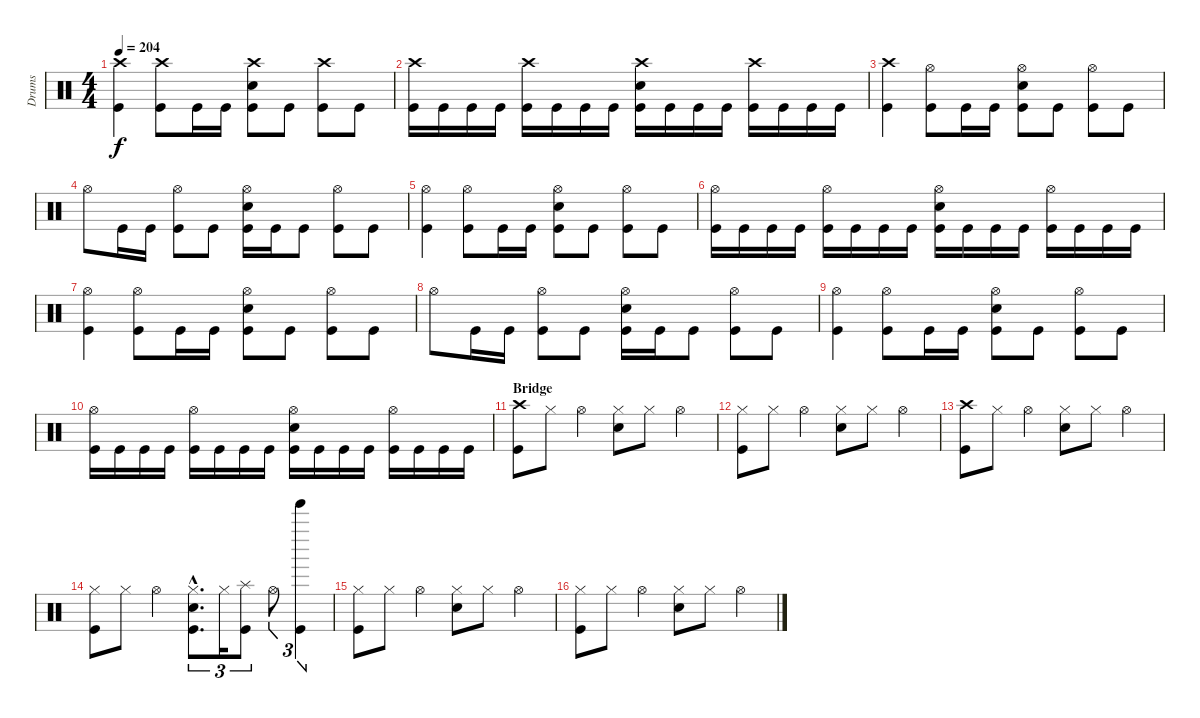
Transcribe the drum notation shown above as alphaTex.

\track ("Drums" "Drums") {instrument percussion}
\staff {score}
\articulation defaults
\ts (4 4)
\tempo 204
\clef neutral
\ks c
("Crash high (hit)" "Kick (hit)").4{dy f} ("Crash high (hit)" "Kick (hit)").8 "Kick (hit)".16 "Kick (hit)".16 ("Crash high (hit)" "Electric Snare (hit)" "Kick (hit)").8 "Kick (hit)".8 ("Crash high (hit)" "Kick (hit)").8 "Kick (hit)".8 |
("Crash high (hit)" "Kick (hit)").16 "Kick (hit)".16 "Kick (hit)".16 "Kick (hit)".16 ("Crash high (hit)" "Kick (hit)").16 "Kick (hit)".16 "Kick (hit)".16 "Kick (hit)".16 ("Crash high (hit)" "Electric Snare (hit)" "Kick (hit)").16 "Kick (hit)".16 "Kick (hit)".16 "Kick (hit)".16 ("Crash high (hit)" "Kick (hit)").16 "Kick (hit)".16 "Kick (hit)".16 "Kick (hit)".16 |
("Crash high (hit)" "Kick (hit)").4 ("Hi-Hat (open)" "Kick (hit)").8 "Kick (hit)".16 "Kick (hit)".16 ("Hi-Hat (open)" "Electric Snare (hit)" "Kick (hit)").8 "Kick (hit)".8 ("Hi-Hat (open)" "Kick (hit)").8 "Kick (hit)".8 |
"Hi-Hat (open)".8 "Kick (hit)".16 "Kick (hit)".16 ("Hi-Hat (open)" "Kick (hit)").8 "Kick (hit)".8 ("Hi-Hat (open)" "Electric Snare (hit)" "Kick (hit)").16 "Kick (hit)".16 "Kick (hit)".8 ("Hi-Hat (open)" "Kick (hit)").8 "Kick (hit)".8 |
("Hi-Hat (open)" "Kick (hit)").4 ("Hi-Hat (open)" "Kick (hit)").8 "Kick (hit)".16 "Kick (hit)".16 ("Hi-Hat (open)" "Electric Snare (hit)" "Kick (hit)").8 "Kick (hit)".8 ("Hi-Hat (open)" "Kick (hit)").8 "Kick (hit)".8 |
("Hi-Hat (open)" "Kick (hit)").16 "Kick (hit)".16 "Kick (hit)".16 "Kick (hit)".16 ("Hi-Hat (open)" "Kick (hit)").16 "Kick (hit)".16 "Kick (hit)".16 "Kick (hit)".16 ("Hi-Hat (open)" "Electric Snare (hit)" "Kick (hit)").16 "Kick (hit)".16 "Kick (hit)".16 "Kick (hit)".16 ("Hi-Hat (open)" "Kick (hit)").16 "Kick (hit)".16 "Kick (hit)".16 "Kick (hit)".16 |
("Hi-Hat (open)" "Kick (hit)").4 ("Hi-Hat (open)" "Kick (hit)").8 "Kick (hit)".16 "Kick (hit)".16 ("Hi-Hat (open)" "Electric Snare (hit)" "Kick (hit)").8 "Kick (hit)".8 ("Hi-Hat (open)" "Kick (hit)").8 "Kick (hit)".8 |
"Hi-Hat (open)".8 "Kick (hit)".16 "Kick (hit)".16 ("Hi-Hat (open)" "Kick (hit)").8 "Kick (hit)".8 ("Hi-Hat (open)" "Electric Snare (hit)" "Kick (hit)").16 "Kick (hit)".16 "Kick (hit)".8 ("Hi-Hat (open)" "Kick (hit)").8 "Kick (hit)".8 |
("Hi-Hat (open)" "Kick (hit)").4 ("Hi-Hat (open)" "Kick (hit)").8 "Kick (hit)".16 "Kick (hit)".16 ("Hi-Hat (open)" "Electric Snare (hit)" "Kick (hit)").8 "Kick (hit)".8 ("Hi-Hat (open)" "Kick (hit)").8 "Kick (hit)".8 |
("Hi-Hat (open)" "Kick (hit)").16 "Kick (hit)".16 "Kick (hit)".16 "Kick (hit)".16 ("Hi-Hat (open)" "Kick (hit)").16 "Kick (hit)".16 "Kick (hit)".16 "Kick (hit)".16 ("Hi-Hat (open)" "Electric Snare (hit)" "Kick (hit)").16 "Kick (hit)".16 "Kick (hit)".16 "Kick (hit)".16 ("Hi-Hat (open)" "Kick (hit)").16 "Kick (hit)".16 "Kick (hit)".16 "Kick (hit)".16 |
\section ("" "Bridge")
("Crash high (hit)" "Kick (hit)").8 "Hi-Hat (closed)".8 "Hi-Hat (open)".4 ("Hi-Hat (closed)" "Electric Snare (hit)").8 "Hi-Hat (closed)".8 "Hi-Hat (open)".4 |
("Hi-Hat (closed)" "Kick (hit)").8 "Hi-Hat (closed)".8 "Hi-Hat (open)".4 ("Hi-Hat (closed)" "Electric Snare (hit)").8 "Hi-Hat (closed)".8 "Hi-Hat (open)".4 |
("Crash high (hit)" "Kick (hit)").8 "Hi-Hat (closed)".8 "Hi-Hat (open)".4 ("Hi-Hat (closed)" "Electric Snare (hit)").8 "Hi-Hat (closed)".8 "Hi-Hat (open)".4 |
("Hi-Hat (closed)" "Kick (hit)").8 "Hi-Hat (closed)".8 "Hi-Hat (open)".4 ("Hi-Hat (closed)"{hac} "Electric Snare (hit)"{hac} "Kick (hit)"{hac}).8{d tu (3 2)} "Hi-Hat (closed)".16{tu (3 2)} ("Splash (hit)" "Kick (hit)").8{tu (3 2)} "Hi-Hat (open)".8{tu (3 2)} ("Tinkle Bell (hit)" "Kick (hit)").4{tu (3 2)} |
("Hi-Hat (closed)" "Kick (hit)").8 "Hi-Hat (closed)".8 "Hi-Hat (open)".4 ("Hi-Hat (closed)" "Electric Snare (hit)").8 "Hi-Hat (closed)".8 "Hi-Hat (open)".4 |
("Hi-Hat (closed)" "Kick (hit)").8 "Hi-Hat (closed)".8 "Hi-Hat (open)".4 ("Hi-Hat (closed)" "Electric Snare (hit)").8 "Hi-Hat (closed)".8 "Hi-Hat (open)".4
